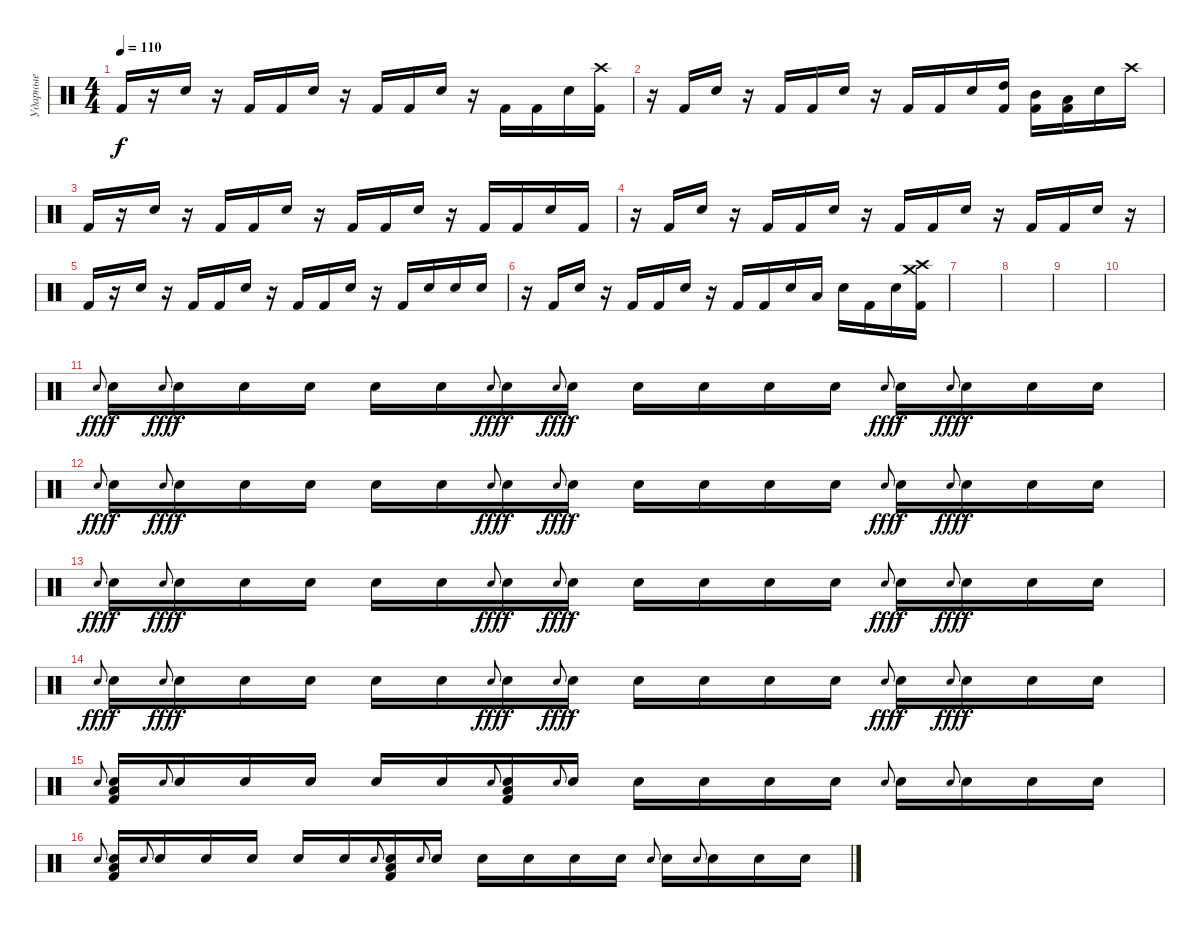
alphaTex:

\track ("Ударные" "Ударные") {instrument percussion}
\staff {score}
\articulation defaults
\ts (4 4)
\tempo 110
\clef neutral
\ks c "Kick (hit) 2".16{dy f}
r.16 "Electric Snare (hit)".16 r.16 "Kick (hit) 2".16 "Kick (hit) 2".16 "Electric Snare (hit)".16 r.16 "Kick (hit) 2".16 "Kick (hit) 2".16 "Electric Snare (hit)".16 r.16 "Kick (hit) 2".16 "Kick (hit) 2".16 "Electric Snare (hit)".16 ("Crash high (hit)" "Kick (hit) 2").16 |
r.16 "Kick (hit) 2".16 "Electric Snare (hit)".16 r.16 "Kick (hit) 2".16 "Kick (hit) 2".16 "Electric Snare (hit)".16 r.16 "Kick (hit) 2".16 "Kick (hit) 2".16 "Electric Snare (hit)".16 ("High Tom (hit)" "Kick (hit) 2").16 ("Mid Tom (hit)" "Kick (hit) 2").16 ("Low Tom (hit)" "Kick (hit) 2").16 "Electric Snare (hit)".16 "Crash high (hit)".16 |
"Kick (hit) 2".16 r.16 "Electric Snare (hit)".16 r.16 "Kick (hit) 2".16 "Kick (hit) 2".16 "Electric Snare (hit)".16 r.16 "Kick (hit) 2".16 "Kick (hit) 2".16 "Electric Snare (hit)".16 r.16 "Kick (hit) 2".16 "Kick (hit) 2".16 "Electric Snare (hit)".16 "Kick (hit) 2".16 |
r.16 "Kick (hit) 2".16 "Electric Snare (hit)".16 r.16 "Kick (hit) 2".16 "Kick (hit) 2".16 "Electric Snare (hit)".16 r.16 "Kick (hit) 2".16 "Kick (hit) 2".16 "Electric Snare (hit)".16 r.16 "Kick (hit) 2".16 "Kick (hit) 2".16 "Electric Snare (hit)".16 r.16 |
"Kick (hit) 2".16 r.16 "Electric Snare (hit)".16 r.16 "Kick (hit) 2".16 "Kick (hit) 2".16 "Electric Snare (hit)".16 r.16 "Kick (hit) 2".16 "Kick (hit) 2".16 "Electric Snare (hit)".16 r.16 "Kick (hit) 2".16 "Electric Snare (hit)".16 "Electric Snare (hit)".16 "Electric Snare (hit)".16 |
r.16 "Kick (hit) 2".16 "Electric Snare (hit)".16 r.16 "Kick (hit) 2".16 "Kick (hit) 2".16 "Electric Snare (hit)".16 r.16 "Kick (hit) 2".16 "Kick (hit) 2".16 "Electric Snare (hit)".16 "Low Tom (hit)".16 "Electric Snare (hit)".16 "Kick (hit) 2".16 "Electric Snare (hit)".16 ("Crash high (hit)" "Crash medium (hit)" "Kick (hit) 2").16 |
|
|
|
|
"Electric Snare (hit)".8{gr onbeat dy fff} "Electric Snare (hit)".16{dy f} "Electric Snare (hit)".8{gr onbeat dy fff} "Electric Snare (hit)".16{dy f} "Electric Snare (hit)".16 "Electric Snare (hit)".16 "Electric Snare (hit)".16 "Electric Snare (hit)".16 "Electric Snare (hit)".8{gr onbeat dy fff} "Electric Snare (hit)".16{dy f} "Electric Snare (hit)".8{gr onbeat dy fff} "Electric Snare (hit)".16{dy f} "Electric Snare (hit)".16 "Electric Snare (hit)".16 "Electric Snare (hit)".16 "Electric Snare (hit)".16 "Electric Snare (hit)".8{gr onbeat dy fff} "Electric Snare (hit)".16{dy f} "Electric Snare (hit)".8{gr onbeat dy fff} "Electric Snare (hit)".16{dy f} "Electric Snare (hit)".16 "Electric Snare (hit)".16 |
"Electric Snare (hit)".8{gr onbeat dy fff} "Electric Snare (hit)".16{dy f} "Electric Snare (hit)".8{gr onbeat dy fff} "Electric Snare (hit)".16{dy f} "Electric Snare (hit)".16 "Electric Snare (hit)".16 "Electric Snare (hit)".16 "Electric Snare (hit)".16 "Electric Snare (hit)".8{gr onbeat dy fff} "Electric Snare (hit)".16{dy f} "Electric Snare (hit)".8{gr onbeat dy fff} "Electric Snare (hit)".16{dy f} "Electric Snare (hit)".16 "Electric Snare (hit)".16 "Electric Snare (hit)".16 "Electric Snare (hit)".16 "Electric Snare (hit)".8{gr onbeat dy fff} "Electric Snare (hit)".16{dy f} "Electric Snare (hit)".8{gr onbeat dy fff} "Electric Snare (hit)".16{dy f} "Electric Snare (hit)".16 "Electric Snare (hit)".16 |
"Electric Snare (hit)".8{gr onbeat dy fff} "Electric Snare (hit)".16{dy f} "Electric Snare (hit)".8{gr onbeat dy fff} "Electric Snare (hit)".16{dy f} "Electric Snare (hit)".16 "Electric Snare (hit)".16 "Electric Snare (hit)".16 "Electric Snare (hit)".16 "Electric Snare (hit)".8{gr onbeat dy fff} "Electric Snare (hit)".16{dy f} "Electric Snare (hit)".8{gr onbeat dy fff} "Electric Snare (hit)".16{dy f} "Electric Snare (hit)".16 "Electric Snare (hit)".16 "Electric Snare (hit)".16 "Electric Snare (hit)".16 "Electric Snare (hit)".8{gr onbeat dy fff} "Electric Snare (hit)".16{dy f} "Electric Snare (hit)".8{gr onbeat dy fff} "Electric Snare (hit)".16{dy f} "Electric Snare (hit)".16 "Electric Snare (hit)".16 |
"Electric Snare (hit)".8{gr onbeat dy fff} "Electric Snare (hit)".16{dy f} "Electric Snare (hit)".8{gr onbeat dy fff} "Electric Snare (hit)".16{dy f} "Electric Snare (hit)".16 "Electric Snare (hit)".16 "Electric Snare (hit)".16 "Electric Snare (hit)".16 "Electric Snare (hit)".8{gr onbeat dy fff} "Electric Snare (hit)".16{dy f} "Electric Snare (hit)".8{gr onbeat dy fff} "Electric Snare (hit)".16{dy f} "Electric Snare (hit)".16 "Electric Snare (hit)".16 "Electric Snare (hit)".16 "Electric Snare (hit)".16 "Electric Snare (hit)".8{gr onbeat dy fff} "Electric Snare (hit)".16{dy f} "Electric Snare (hit)".8{gr onbeat dy fff} "Electric Snare (hit)".16{dy f} "Electric Snare (hit)".16 "Electric Snare (hit)".16 |
"Electric Snare (hit)".8{gr onbeat} ("Low Tom (hit)" "Kick (hit) 2" "Electric Snare (hit)").16 "Electric Snare (hit)".8{gr onbeat} "Electric Snare (hit)".16 "Electric Snare (hit)".16 "Electric Snare (hit)".16 "Electric Snare (hit)".16 "Electric Snare (hit)".16 "Electric Snare (hit)".8{gr onbeat} ("Low Tom (hit)" "Kick (hit) 2" "Electric Snare (hit)").16 "Electric Snare (hit)".8{gr onbeat} "Electric Snare (hit)".16 "Electric Snare (hit)".16 "Electric Snare (hit)".16 "Electric Snare (hit)".16 "Electric Snare (hit)".16 "Electric Snare (hit)".8{gr onbeat} "Electric Snare (hit)".16 "Electric Snare (hit)".8{gr onbeat} "Electric Snare (hit)".16 "Electric Snare (hit)".16 "Electric Snare (hit)".16 |
"Electric Snare (hit)".8{gr onbeat} ("Low Tom (hit)" "Kick (hit) 2" "Electric Snare (hit)").16 "Electric Snare (hit)".8{gr onbeat} "Electric Snare (hit)".16 "Electric Snare (hit)".16 "Electric Snare (hit)".16 "Electric Snare (hit)".16 "Electric Snare (hit)".16 "Electric Snare (hit)".8{gr onbeat} ("Low Tom (hit)" "Kick (hit) 2" "Electric Snare (hit)").16 "Electric Snare (hit)".8{gr onbeat} "Electric Snare (hit)".16 "Electric Snare (hit)".16 "Electric Snare (hit)".16 "Electric Snare (hit)".16 "Electric Snare (hit)".16 "Electric Snare (hit)".8{gr onbeat} "Electric Snare (hit)".16 "Electric Snare (hit)".8{gr onbeat} "Electric Snare (hit)".16 "Electric Snare (hit)".16 "Electric Snare (hit)".16
